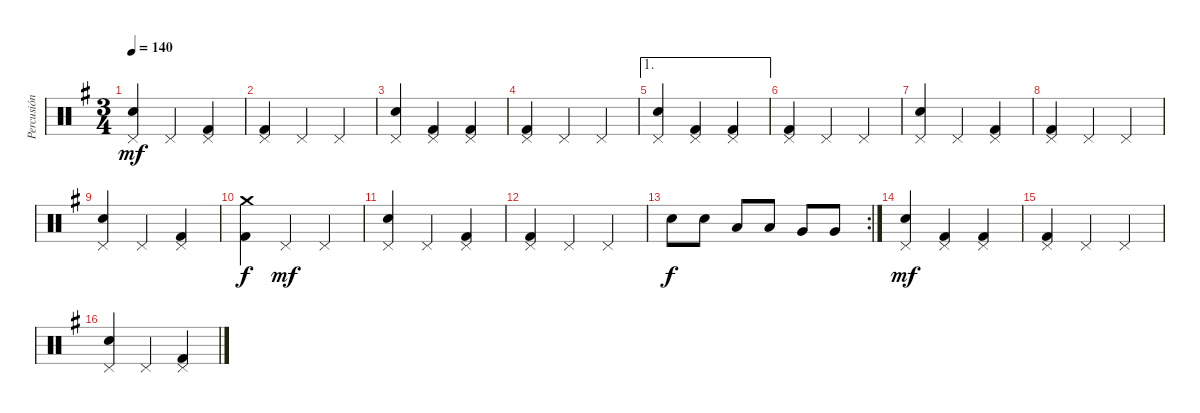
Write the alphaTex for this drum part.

\track ("Percusión" "Percusión") {instrument percussion}
\staff {score}
\articulation defaults
\ts (3 4)
\tempo 140
\clef neutral
\ks g
("Pedal Hi-Hat (hit)" "Snare (hit) 2").4{dy mf} "Pedal Hi-Hat (hit)".4 ("Pedal Hi-Hat (hit)" "Kick (hit) 2").4 |
("Pedal Hi-Hat (hit)" "Kick (hit) 2").4 "Pedal Hi-Hat (hit)".4 "Pedal Hi-Hat (hit)".4 |
("Pedal Hi-Hat (hit)" "Snare (hit) 2").4 ("Pedal Hi-Hat (hit)" "Kick (hit) 2").4 ("Pedal Hi-Hat (hit)" "Kick (hit) 2").4 |
("Pedal Hi-Hat (hit)" "Kick (hit) 2").4 "Pedal Hi-Hat (hit)".4 "Pedal Hi-Hat (hit)".4 |
\ae 1
("Pedal Hi-Hat (hit)" "Snare (hit) 2").4 ("Pedal Hi-Hat (hit)" "Kick (hit) 2").4 ("Pedal Hi-Hat (hit)" "Kick (hit) 2").4 |
("Pedal Hi-Hat (hit)" "Kick (hit) 2").4 "Pedal Hi-Hat (hit)".4 "Pedal Hi-Hat (hit)".4 |
("Pedal Hi-Hat (hit)" "Snare (hit) 2").4 "Pedal Hi-Hat (hit)".4 ("Pedal Hi-Hat (hit)" "Kick (hit) 2").4 |
("Pedal Hi-Hat (hit)" "Kick (hit) 2").4 "Pedal Hi-Hat (hit)".4 "Pedal Hi-Hat (hit)".4 |
("Pedal Hi-Hat (hit)" "Snare (hit) 2").4 "Pedal Hi-Hat (hit)".4 ("Pedal Hi-Hat (hit)" "Kick (hit) 2").4 |
("Crash medium (hit)" "Kick (hit) 2").4{dy f} "Pedal Hi-Hat (hit)".4{dy mf} "Pedal Hi-Hat (hit)".4 |
("Pedal Hi-Hat (hit)" "Snare (hit) 2").4 "Pedal Hi-Hat (hit)".4 ("Pedal Hi-Hat (hit)" "Kick (hit) 2").4 |
("Pedal Hi-Hat (hit)" "Kick (hit) 2").4 "Pedal Hi-Hat (hit)".4 "Pedal Hi-Hat (hit)".4 |
\rc 2 "Snare (hit) 2".8{dy f} "Snare (hit) 2".8 "Low Tom (hit)".8 "Low Tom (hit)".8 "Very Low Tom (hit)".8 "Very Low Tom (hit)".8
|
("Pedal Hi-Hat (hit)" "Snare (hit) 2").4{dy mf} ("Pedal Hi-Hat (hit)" "Kick (hit) 2").4 ("Pedal Hi-Hat (hit)" "Kick (hit) 2").4 |
("Pedal Hi-Hat (hit)" "Kick (hit) 2").4 "Pedal Hi-Hat (hit)".4 "Pedal Hi-Hat (hit)".4 |
("Pedal Hi-Hat (hit)" "Snare (hit) 2").4 "Pedal Hi-Hat (hit)".4 ("Pedal Hi-Hat (hit)" "Kick (hit) 2").4
